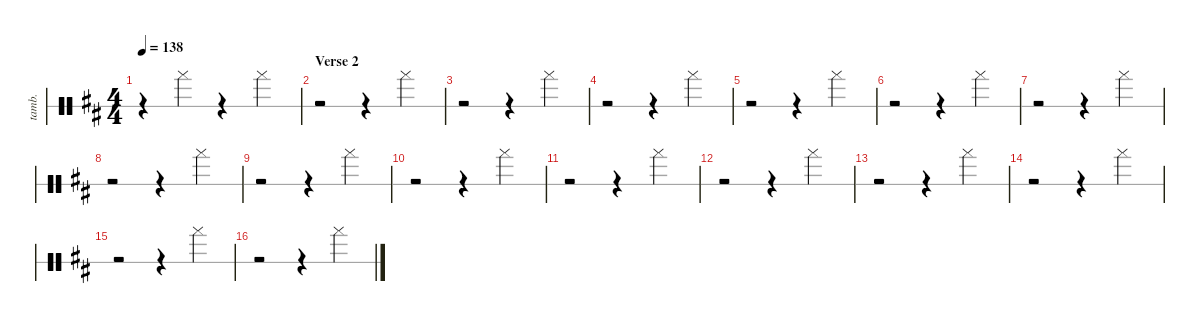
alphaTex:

\hideDynamics
\bracketExtendMode groupsimilarinstruments
\otherSystemsTrackNameOrientation horizontal
\track ("Tambourine" "tamb.") {instrument percussion}
\staff {score 1}
\articulation defaults
\ts (4 4)
\tempo 138
\clef neutral
\ks d
r.4{dy mf} "Tambourine (hand)"{acc forcenatural}.4 r.4 "Tambourine (hand)"{acc forcenatural}.4 |
\section ("" "Verse 2")
r.2 r.4 "Tambourine (hand)"{acc forcenatural}.4 |
r.2 r.4 "Tambourine (hand)"{acc forcenatural}.4 |
r.2 r.4 "Tambourine (hand)"{acc forcenatural}.4 |
r.2 r.4 "Tambourine (hand)"{acc forcenatural}.4 |
r.2 r.4 "Tambourine (hand)"{acc forcenatural}.4 |
r.2 r.4 "Tambourine (hand)"{acc forcenatural}.4 |
r.2 r.4 "Tambourine (hand)"{acc forcenatural}.4 |
r.2 r.4 "Tambourine (hand)"{acc forcenatural}.4 |
r.2 r.4 "Tambourine (hand)"{acc forcenatural}.4 |
r.2 r.4 "Tambourine (hand)"{acc forcenatural}.4 |
r.2 r.4 "Tambourine (hand)"{acc forcenatural}.4 |
r.2 r.4 "Tambourine (hand)"{acc forcenatural}.4 |
r.2 r.4 "Tambourine (hand)"{acc forcenatural}.4 |
r.2 r.4 "Tambourine (hand)"{acc forcenatural}.4 |
r.2 r.4 "Tambourine (hand)"{acc forcenatural}.4
